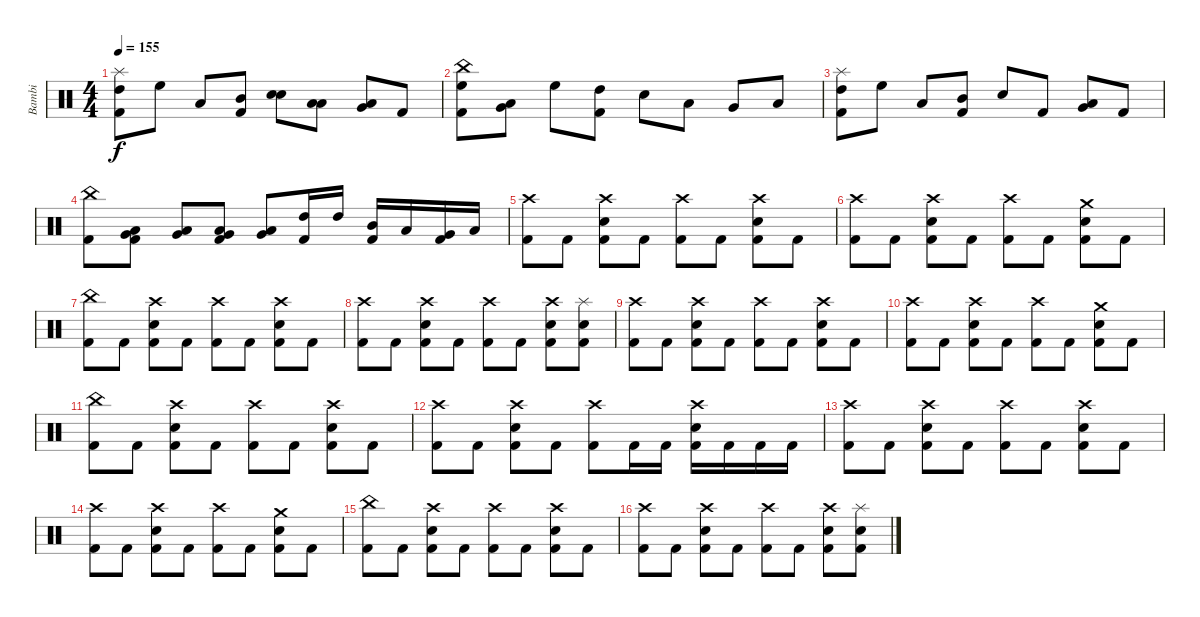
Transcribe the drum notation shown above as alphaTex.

\track ("Bambi" "Bambi") {instrument percussion}
\staff {score}
\articulation defaults
\ts (4 4)
\tempo 155
\clef neutral
\ks c
("High Tom (hit)" "Kick (hit) 2" "Splash (hit)").8{dy f} "High Floor Tom (hit)".8 "Low Tom (hit)".8 ("Mid Tom (hit)" "Kick (hit) 2").8 ("Electric Snare (hit)" "Snare (hit) 2").8 ("Low Floor Tom (hit)" "Low Tom (hit)").8 ("Low Floor Tom (hit)" "Very Low Tom (hit)").8 "Kick (hit) 2".8 |
("High Floor Tom (hit)" "China (hit)" "Kick (hit) 2").8 ("Very Low Tom (hit)" "Low Tom (hit)").8 "High Floor Tom (hit)".8 ("Kick (hit) 2" "High Tom (hit)").8 "Electric Snare (hit)".8 "Low Floor Tom (hit)".8 "Very Low Tom (hit)".8 "Low Tom (hit)".8 |
("High Tom (hit)" "Kick (hit) 2" "Splash (hit)").8 "High Floor Tom (hit)".8 "Low Tom (hit)".8 ("Mid Tom (hit)" "Kick (hit) 2").8 "Electric Snare (hit)".8 "Kick (hit) 2".8 ("Low Floor Tom (hit)" "Very Low Tom (hit)").8 "Kick (hit) 2".8 |
("Kick (hit) 2" "China (hit)").8 ("Low Floor Tom (hit)" "Very Low Tom (hit)" "Kick (hit) 2").8 ("Very Low Tom (hit)" "Low Floor Tom (hit)").8 ("Kick (hit) 2" "Very Low Tom (hit)" "Low Floor Tom (hit)").8 ("Very Low Tom (hit)" "Low Floor Tom (hit)").8 ("High Tom (hit)" "Kick (hit) 2").16 "High Tom (hit)".16 ("Mid Tom (hit)" "Kick (hit) 2").16 "Low Tom (hit)".16 ("Very Low Tom (hit)" "Kick (hit) 2").16 "Low Floor Tom (hit)".16 |
("Kick (hit) 2" "Crash high (hit)").8 "Kick (hit) 2".8 ("Kick (hit) 2" "Crash high (hit)" "Electric Snare (hit)").8 "Kick (hit) 2".8 ("Kick (hit) 2" "Crash high (hit)").8 "Kick (hit) 2".8 ("Kick (hit) 2" "Crash high (hit)" "Electric Snare (hit)").8 "Kick (hit) 2".8 |
("Kick (hit) 2" "Crash high (hit)").8 "Kick (hit) 2".8 ("Kick (hit) 2" "Crash high (hit)" "Electric Snare (hit)").8 "Kick (hit) 2".8 ("Kick (hit) 2" "Crash high (hit)").8 "Kick (hit) 2".8 ("Kick (hit) 2" "Crash medium (hit)" "Electric Snare (hit)").8 "Kick (hit) 2".8 |
("Kick (hit) 2" "China (hit)").8 "Kick (hit) 2".8 ("Kick (hit) 2" "Crash high (hit)" "Electric Snare (hit)").8 "Kick (hit) 2".8 ("Kick (hit) 2" "Crash high (hit)").8 "Kick (hit) 2".8 ("Kick (hit) 2" "Crash high (hit)" "Electric Snare (hit)").8 "Kick (hit) 2".8 |
("Kick (hit) 2" "Crash high (hit)").8 "Kick (hit) 2".8 ("Kick (hit) 2" "Crash high (hit)" "Electric Snare (hit)").8 "Kick (hit) 2".8 ("Kick (hit) 2" "Crash high (hit)").8 "Kick (hit) 2".8 ("Kick (hit) 2" "Crash high (hit)" "Electric Snare (hit)").8 ("Kick (hit) 2" "Electric Snare (hit)" "Splash (hit)").8 |
("Kick (hit) 2" "Crash high (hit)").8 "Kick (hit) 2".8 ("Kick (hit) 2" "Crash high (hit)" "Electric Snare (hit)").8 "Kick (hit) 2".8 ("Kick (hit) 2" "Crash high (hit)").8 "Kick (hit) 2".8 ("Kick (hit) 2" "Crash high (hit)" "Electric Snare (hit)").8 "Kick (hit) 2".8 |
("Kick (hit) 2" "Crash high (hit)").8 "Kick (hit) 2".8 ("Kick (hit) 2" "Crash high (hit)" "Electric Snare (hit)").8 "Kick (hit) 2".8 ("Kick (hit) 2" "Crash high (hit)").8 "Kick (hit) 2".8 ("Kick (hit) 2" "Crash medium (hit)" "Electric Snare (hit)").8 "Kick (hit) 2".8 |
("Kick (hit) 2" "China (hit)").8 "Kick (hit) 2".8 ("Kick (hit) 2" "Crash high (hit)" "Electric Snare (hit)").8 "Kick (hit) 2".8 ("Kick (hit) 2" "Crash high (hit)").8 "Kick (hit) 2".8 ("Kick (hit) 2" "Crash high (hit)" "Electric Snare (hit)").8 "Kick (hit) 2".8 |
("Kick (hit) 2" "Crash high (hit)").8 "Kick (hit) 2".8 ("Kick (hit) 2" "Crash high (hit)" "Electric Snare (hit)").8 "Kick (hit) 2".8 ("Kick (hit) 2" "Crash high (hit)").8 "Kick (hit) 2".16 "Kick (hit) 2".16 ("Kick (hit) 2" "Crash high (hit)" "Electric Snare (hit)").16 "Kick (hit) 2".16 "Kick (hit) 2".16 "Kick (hit) 2".16 |
("Kick (hit) 2" "Crash high (hit)").8 "Kick (hit) 2".8 ("Kick (hit) 2" "Crash high (hit)" "Electric Snare (hit)").8 "Kick (hit) 2".8 ("Kick (hit) 2" "Crash high (hit)").8 "Kick (hit) 2".8 ("Kick (hit) 2" "Crash high (hit)" "Electric Snare (hit)").8 "Kick (hit) 2".8 |
("Kick (hit) 2" "Crash high (hit)").8 "Kick (hit) 2".8 ("Kick (hit) 2" "Crash high (hit)" "Electric Snare (hit)").8 "Kick (hit) 2".8 ("Kick (hit) 2" "Crash high (hit)").8 "Kick (hit) 2".8 ("Kick (hit) 2" "Crash medium (hit)" "Electric Snare (hit)").8 "Kick (hit) 2".8 |
("Kick (hit) 2" "China (hit)").8 "Kick (hit) 2".8 ("Kick (hit) 2" "Crash high (hit)" "Electric Snare (hit)").8 "Kick (hit) 2".8 ("Kick (hit) 2" "Crash high (hit)").8 "Kick (hit) 2".8 ("Kick (hit) 2" "Crash high (hit)" "Electric Snare (hit)").8 "Kick (hit) 2".8 |
("Kick (hit) 2" "Crash high (hit)").8 "Kick (hit) 2".8 ("Kick (hit) 2" "Crash high (hit)" "Electric Snare (hit)").8 "Kick (hit) 2".8 ("Kick (hit) 2" "Crash high (hit)").8 "Kick (hit) 2".8 ("Kick (hit) 2" "Crash high (hit)" "Electric Snare (hit)").8 ("Kick (hit) 2" "Electric Snare (hit)" "Splash (hit)").8
